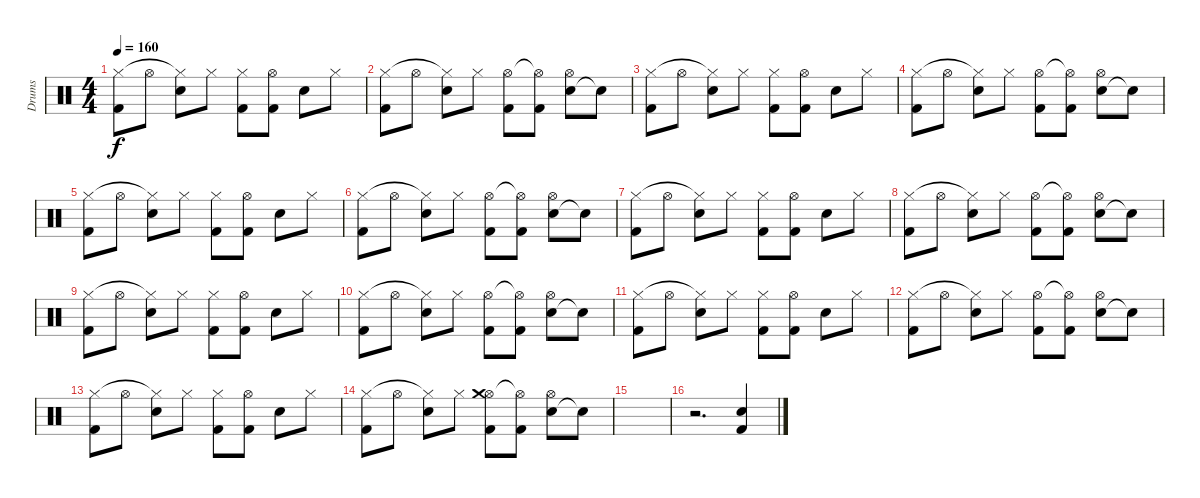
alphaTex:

\track ("Drums" "Drums") {instrument percussion}
\staff {score}
\articulation defaults
\ts (4 4)
\tempo 160
\clef neutral
\ks c
("Kick (hit) 2" "Hi-Hat (closed)").8{dy f} "Hi-Hat (open)".8 ("Snare (hit) 2" "Hi-Hat (closed)"{t}).8 "Hi-Hat (closed)".8 ("Kick (hit) 2" "Hi-Hat (closed)").8 ("Kick (hit) 2" "Hi-Hat (open)").8 "Snare (hit) 2".8 "Hi-Hat (closed)".8 |
("Kick (hit) 2" "Hi-Hat (closed)").8 "Hi-Hat (open)".8 ("Snare (hit) 2" "Hi-Hat (closed)"{t}).8 "Hi-Hat (closed)".8 ("Kick (hit) 2" "Hi-Hat (open)").8 ("Kick (hit) 2" "Hi-Hat (open)"{t}).8 ("Snare (hit) 2" "Hi-Hat (open)").8 "Snare (hit)"{t}.8 |
("Kick (hit) 2" "Hi-Hat (closed)").8 "Hi-Hat (open)".8 ("Snare (hit) 2" "Hi-Hat (closed)"{t}).8 "Hi-Hat (closed)".8 ("Kick (hit) 2" "Hi-Hat (closed)").8 ("Kick (hit) 2" "Hi-Hat (open)").8 "Snare (hit) 2".8 "Hi-Hat (closed)".8 |
("Kick (hit) 2" "Hi-Hat (closed)").8 "Hi-Hat (open)".8 ("Snare (hit) 2" "Hi-Hat (closed)"{t}).8 "Hi-Hat (closed)".8 ("Kick (hit) 2" "Hi-Hat (open)").8 ("Kick (hit) 2" "Hi-Hat (open)"{t}).8 ("Snare (hit) 2" "Hi-Hat (open)").8 "Snare (hit)"{t}.8 |
("Kick (hit) 2" "Hi-Hat (closed)").8 "Hi-Hat (open)".8 ("Snare (hit) 2" "Hi-Hat (closed)"{t}).8 "Hi-Hat (closed)".8 ("Kick (hit) 2" "Hi-Hat (closed)").8 ("Kick (hit) 2" "Hi-Hat (open)").8 "Snare (hit) 2".8 "Hi-Hat (closed)".8 |
("Kick (hit) 2" "Hi-Hat (closed)").8 "Hi-Hat (open)".8 ("Snare (hit) 2" "Hi-Hat (closed)"{t}).8 "Hi-Hat (closed)".8 ("Kick (hit) 2" "Hi-Hat (open)").8 ("Kick (hit) 2" "Hi-Hat (open)"{t}).8 ("Snare (hit) 2" "Hi-Hat (open)").8 "Snare (hit)"{t}.8 |
("Kick (hit) 2" "Hi-Hat (closed)").8 "Hi-Hat (open)".8 ("Snare (hit) 2" "Hi-Hat (closed)"{t}).8 "Hi-Hat (closed)".8 ("Kick (hit) 2" "Hi-Hat (closed)").8 ("Kick (hit) 2" "Hi-Hat (open)").8 "Snare (hit) 2".8 "Hi-Hat (closed)".8 |
("Kick (hit) 2" "Hi-Hat (closed)").8 "Hi-Hat (open)".8 ("Snare (hit) 2" "Hi-Hat (closed)"{t}).8 "Hi-Hat (closed)".8 ("Kick (hit) 2" "Hi-Hat (open)").8 ("Kick (hit) 2" "Hi-Hat (open)"{t}).8 ("Snare (hit) 2" "Hi-Hat (open)").8 "Snare (hit)"{t}.8 |
("Kick (hit) 2" "Hi-Hat (closed)").8 "Hi-Hat (open)".8 ("Snare (hit) 2" "Hi-Hat (closed)"{t}).8 "Hi-Hat (closed)".8 ("Kick (hit) 2" "Hi-Hat (closed)").8 ("Kick (hit) 2" "Hi-Hat (open)").8 "Snare (hit) 2".8 "Hi-Hat (closed)".8 |
("Kick (hit) 2" "Hi-Hat (closed)").8 "Hi-Hat (open)".8 ("Snare (hit) 2" "Hi-Hat (closed)"{t}).8 "Hi-Hat (closed)".8 ("Kick (hit) 2" "Hi-Hat (open)").8 ("Kick (hit) 2" "Hi-Hat (open)"{t}).8 ("Snare (hit) 2" "Hi-Hat (open)").8 "Snare (hit)"{t}.8 |
("Kick (hit) 2" "Hi-Hat (closed)").8 "Hi-Hat (open)".8 ("Snare (hit) 2" "Hi-Hat (closed)"{t}).8 "Hi-Hat (closed)".8 ("Kick (hit) 2" "Hi-Hat (closed)").8 ("Kick (hit) 2" "Hi-Hat (open)").8 "Snare (hit) 2".8 "Hi-Hat (closed)".8 |
("Kick (hit) 2" "Hi-Hat (closed)").8 "Hi-Hat (open)".8 ("Snare (hit) 2" "Hi-Hat (closed)"{t}).8 "Hi-Hat (closed)".8 ("Kick (hit) 2" "Hi-Hat (open)").8 ("Kick (hit) 2" "Hi-Hat (open)"{t}).8 ("Snare (hit) 2" "Hi-Hat (open)").8 "Snare (hit)"{t}.8 |
("Kick (hit) 2" "Hi-Hat (closed)").8 "Hi-Hat (open)".8 ("Snare (hit) 2" "Hi-Hat (closed)"{t}).8 "Hi-Hat (closed)".8 ("Kick (hit) 2" "Hi-Hat (closed)").8 ("Kick (hit) 2" "Hi-Hat (open)").8 "Snare (hit) 2".8 "Hi-Hat (closed)".8 |
("Kick (hit) 2" "Hi-Hat (closed)").8 "Hi-Hat (open)".8 ("Snare (hit) 2" "Hi-Hat (closed)"{t}).8 "Hi-Hat (closed)".8 ("Kick (hit) 2" "Hi-Hat (open)" "Crash medium (hit)").8 ("Kick (hit) 2" "Hi-Hat (open)"{t}).8 ("Snare (hit) 2" "Hi-Hat (open)").8 "Snare (hit)"{t}.8 |
|
r.2{d} ("Snare (hit) 2" "Kick (hit) 2").4
